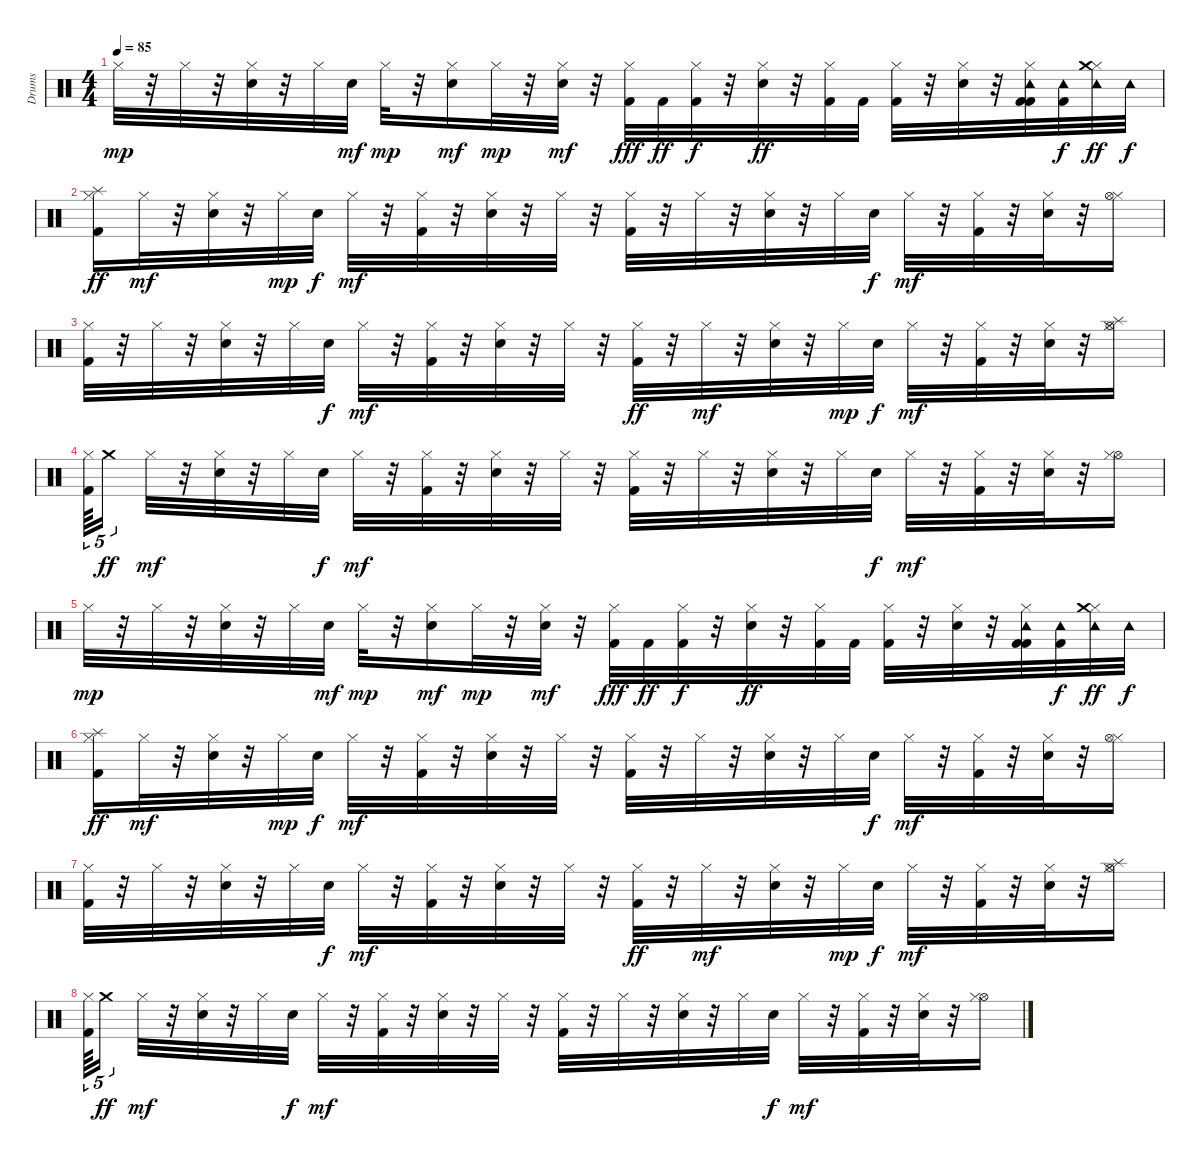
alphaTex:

\track ("Drums" "Drums") {instrument percussion}
\staff {score}
\articulation defaults
\ts (4 4)
\tempo 85
\clef neutral
\ks c "Hi-Hat (closed)".32{dy mp}
r.32 "Hi-Hat (closed)".32 r.32 ("Hi-Hat (closed)" "Electric Snare (hit)").32 r.32 "Hi-Hat (closed)".32 "Electric Snare (hit)".32{dy mf} "Hi-Hat (closed)".32{dy mp} r.32 ("Electric Snare (hit)" "Hi-Hat (closed)").16{dy mf} "Hi-Hat (closed)".32{dy mp} r.32 ("Electric Snare (hit)" "Hi-Hat (closed)").32{dy mf} r.32 ("Hi-Hat (closed)" "Kick (hit) 2").32{dy fff} "Kick (hit) 2".32{dy ff} ("Hi-Hat (closed)" "Kick (hit) 2").32{dy f} r.32 ("Hi-Hat (closed)" "Electric Snare (hit)").32{dy ff} r.32 ("Hi-Hat (closed)" "Kick (hit) 2").32 "Kick (hit) 2".32 ("Hi-Hat (closed)" "Kick (hit) 2").32 r.32 ("Hi-Hat (closed)" "Electric Snare (hit)").32 r.32 ("Hi-Hat (closed)" "Kick (hit) 2" "Kick (hit) 2" "Tambourine (hit)").32 ("Kick (hit) 2" "Tambourine (hit)").32{dy f} ("Hi-Hat (closed)" "Tambourine (hit)" "Crash medium (hit)").32{dy ff} "Tambourine (hit)".32{dy f} |
("Splash (hit)" "Kick (hit) 2" "Hi-Hat (closed)").16{dy ff} "Hi-Hat (closed)".32{dy mf} r.32 ("Hi-Hat (closed)" "Electric Snare (hit)").32 r.32 "Hi-Hat (closed)".32{dy mp} "Electric Snare (hit)".32{dy f} "Hi-Hat (closed)".32{dy mf} r.32 ("Kick (hit) 2" "Hi-Hat (closed)").32 r.32 ("Electric Snare (hit)" "Hi-Hat (closed)").32 r.32 "Hi-Hat (closed)".32 r.32 ("Kick (hit) 2" "Hi-Hat (closed)").32 r.32 "Hi-Hat (closed)".32 r.32 ("Electric Snare (hit)" "Hi-Hat (closed)").32 r.32 "Hi-Hat (closed)".32 "Electric Snare (hit)".32{dy f} "Hi-Hat (closed)".32{dy mf} r.32 ("Kick (hit) 2" "Hi-Hat (closed)").32 r.32 ("Electric Snare (hit)" "Hi-Hat (closed)").32 r.32 ("Hi-Hat (closed)" "Hi-Hat (open)").16 |
("Kick (hit) 2" "Hi-Hat (closed)").32 r.32 "Hi-Hat (closed)".32 r.32 ("Electric Snare (hit)" "Hi-Hat (closed)").32 r.32 "Hi-Hat (closed)".32 "Electric Snare (hit)".32{dy f} "Hi-Hat (closed)".32{dy mf} r.32 ("Kick (hit) 2" "Hi-Hat (closed)").32 r.32 ("Hi-Hat (closed)" "Electric Snare (hit)").32 r.32 "Hi-Hat (closed)".32 r.32 ("Hi-Hat (closed)" "Kick (hit) 2").32{dy ff} r.32 "Hi-Hat (closed)".32{dy mf} r.32 ("Electric Snare (hit)" "Hi-Hat (closed)").32 r.32 "Hi-Hat (closed)".32{dy mp} "Electric Snare (hit)".32{dy f} "Hi-Hat (closed)".32{dy mf} r.32 ("Kick (hit) 2" "Hi-Hat (closed)").32 r.32 ("Electric Snare (hit)" "Hi-Hat (closed)").32 r.32 ("Hi-Hat (open)" "Hi-Hat (closed)" "Splash (hit)").16 |
("Kick (hit) 2" "Hi-Hat (closed)").64{tu (5 4)} "Crash medium (hit)".16{tu (5 4) dy ff beam splitsecondary} "Hi-Hat (closed)".32{dy mf} r.32 ("Electric Snare (hit)" "Hi-Hat (closed)").32 r.32 "Hi-Hat (closed)".32 "Electric Snare (hit)".32{dy f} "Hi-Hat (closed)".32{dy mf} r.32 ("Kick (hit) 2" "Hi-Hat (closed)").32 r.32 ("Electric Snare (hit)" "Hi-Hat (closed)").32 r.32 "Hi-Hat (closed)".32 r.32 ("Kick (hit) 2" "Hi-Hat (closed)").32 r.32 "Hi-Hat (closed)".32 r.32 ("Electric Snare (hit)" "Hi-Hat (closed)").32 r.32 "Hi-Hat (closed)".32 "Electric Snare (hit)".32{dy f} "Hi-Hat (closed)".32{dy mf} r.32 ("Kick (hit) 2" "Hi-Hat (closed)").32 r.32 ("Electric Snare (hit)" "Hi-Hat (closed)").32 r.32 ("Hi-Hat (open)" "Hi-Hat (closed)").16 |
"Hi-Hat (closed)".32{dy mp} r.32 "Hi-Hat (closed)".32 r.32 ("Hi-Hat (closed)" "Electric Snare (hit)").32 r.32 "Hi-Hat (closed)".32 "Electric Snare (hit)".32{dy mf} "Hi-Hat (closed)".32{dy mp} r.32 ("Electric Snare (hit)" "Hi-Hat (closed)").16{dy mf} "Hi-Hat (closed)".32{dy mp} r.32 ("Electric Snare (hit)" "Hi-Hat (closed)").32{dy mf} r.32 ("Hi-Hat (closed)" "Kick (hit) 2").32{dy fff} "Kick (hit) 2".32{dy ff} ("Hi-Hat (closed)" "Kick (hit) 2").32{dy f} r.32 ("Hi-Hat (closed)" "Electric Snare (hit)").32{dy ff} r.32 ("Hi-Hat (closed)" "Kick (hit) 2").32 "Kick (hit) 2".32 ("Hi-Hat (closed)" "Kick (hit) 2").32 r.32 ("Hi-Hat (closed)" "Electric Snare (hit)").32 r.32 ("Hi-Hat (closed)" "Kick (hit) 2" "Kick (hit) 2" "Tambourine (hit)").32 ("Kick (hit) 2" "Tambourine (hit)").32{dy f} ("Hi-Hat (closed)" "Tambourine (hit)" "Crash medium (hit)").32{dy ff} "Tambourine (hit)".32{dy f} |
("Splash (hit)" "Kick (hit) 2" "Hi-Hat (closed)").16{dy ff} "Hi-Hat (closed)".32{dy mf} r.32 ("Hi-Hat (closed)" "Electric Snare (hit)").32 r.32 "Hi-Hat (closed)".32{dy mp} "Electric Snare (hit)".32{dy f} "Hi-Hat (closed)".32{dy mf} r.32 ("Kick (hit) 2" "Hi-Hat (closed)").32 r.32 ("Electric Snare (hit)" "Hi-Hat (closed)").32 r.32 "Hi-Hat (closed)".32 r.32 ("Kick (hit) 2" "Hi-Hat (closed)").32 r.32 "Hi-Hat (closed)".32 r.32 ("Electric Snare (hit)" "Hi-Hat (closed)").32 r.32 "Hi-Hat (closed)".32 "Electric Snare (hit)".32{dy f} "Hi-Hat (closed)".32{dy mf} r.32 ("Kick (hit) 2" "Hi-Hat (closed)").32 r.32 ("Electric Snare (hit)" "Hi-Hat (closed)").32 r.32 ("Hi-Hat (closed)" "Hi-Hat (open)").16 |
("Kick (hit) 2" "Hi-Hat (closed)").32 r.32 "Hi-Hat (closed)".32 r.32 ("Electric Snare (hit)" "Hi-Hat (closed)").32 r.32 "Hi-Hat (closed)".32 "Electric Snare (hit)".32{dy f} "Hi-Hat (closed)".32{dy mf} r.32 ("Kick (hit) 2" "Hi-Hat (closed)").32 r.32 ("Hi-Hat (closed)" "Electric Snare (hit)").32 r.32 "Hi-Hat (closed)".32 r.32 ("Hi-Hat (closed)" "Kick (hit) 2").32{dy ff} r.32 "Hi-Hat (closed)".32{dy mf} r.32 ("Electric Snare (hit)" "Hi-Hat (closed)").32 r.32 "Hi-Hat (closed)".32{dy mp} "Electric Snare (hit)".32{dy f} "Hi-Hat (closed)".32{dy mf} r.32 ("Kick (hit) 2" "Hi-Hat (closed)").32 r.32 ("Electric Snare (hit)" "Hi-Hat (closed)").32 r.32 ("Hi-Hat (open)" "Hi-Hat (closed)" "Splash (hit)").16 |
("Kick (hit) 2" "Hi-Hat (closed)").64{tu (5 4)} "Crash medium (hit)".16{tu (5 4) dy ff beam splitsecondary} "Hi-Hat (closed)".32{dy mf} r.32 ("Electric Snare (hit)" "Hi-Hat (closed)").32 r.32 "Hi-Hat (closed)".32 "Electric Snare (hit)".32{dy f} "Hi-Hat (closed)".32{dy mf} r.32 ("Kick (hit) 2" "Hi-Hat (closed)").32 r.32 ("Electric Snare (hit)" "Hi-Hat (closed)").32 r.32 "Hi-Hat (closed)".32 r.32 ("Kick (hit) 2" "Hi-Hat (closed)").32 r.32 "Hi-Hat (closed)".32 r.32 ("Electric Snare (hit)" "Hi-Hat (closed)").32 r.32 "Hi-Hat (closed)".32 "Electric Snare (hit)".32{dy f} "Hi-Hat (closed)".32{dy mf} r.32 ("Kick (hit) 2" "Hi-Hat (closed)").32 r.32 ("Electric Snare (hit)" "Hi-Hat (closed)").32 r.32 ("Hi-Hat (open)" "Hi-Hat (closed)").16
